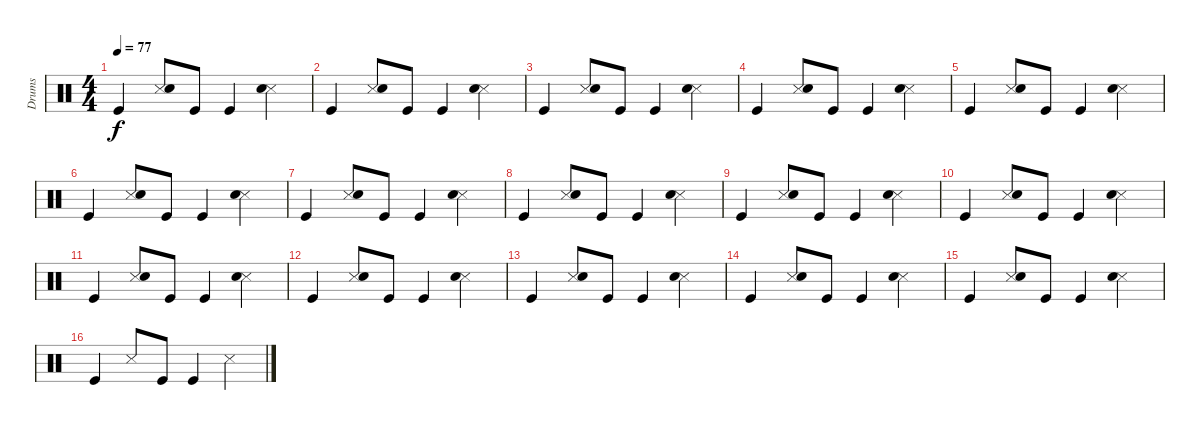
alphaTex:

\track ("Drums" "Drums") {instrument percussion}
\staff {score}
\articulation defaults
\ts (4 4)
\tempo 77
\clef neutral
\ks c "Kick (hit)".4{dy f}
("Snare (side stick) 3" "Snare (hit) 2").8 "Kick (hit)".8 "Kick (hit)".4 ("Snare (side stick) 3" "Snare (hit) 2").4 |
"Kick (hit)".4 ("Snare (side stick) 3" "Snare (hit) 2").8 "Kick (hit)".8 "Kick (hit)".4 ("Snare (side stick) 3" "Snare (hit) 2").4 |
"Kick (hit)".4 ("Snare (side stick) 3" "Snare (hit) 2").8 "Kick (hit)".8 "Kick (hit)".4 ("Snare (side stick) 3" "Snare (hit) 2").4 |
"Kick (hit)".4 ("Snare (side stick) 3" "Snare (hit) 2").8 "Kick (hit)".8 "Kick (hit)".4 ("Snare (side stick) 3" "Snare (hit) 2").4 |
"Kick (hit)".4 ("Snare (side stick) 3" "Snare (hit) 2").8 "Kick (hit)".8 "Kick (hit)".4 ("Snare (side stick) 3" "Snare (hit) 2").4 |
"Kick (hit)".4 ("Snare (side stick) 3" "Snare (hit) 2").8 "Kick (hit)".8 "Kick (hit)".4 ("Snare (side stick) 3" "Snare (hit) 2").4 |
"Kick (hit)".4 ("Snare (side stick) 3" "Snare (hit) 2").8 "Kick (hit)".8 "Kick (hit)".4 ("Snare (side stick) 3" "Snare (hit) 2").4 |
"Kick (hit)".4 ("Snare (side stick) 3" "Snare (hit) 2").8 "Kick (hit)".8 "Kick (hit)".4 ("Snare (side stick) 3" "Snare (hit) 2").4 |
"Kick (hit)".4 ("Snare (side stick) 3" "Snare (hit) 2").8 "Kick (hit)".8 "Kick (hit)".4 ("Snare (side stick) 3" "Snare (hit) 2").4 |
"Kick (hit)".4 ("Snare (side stick) 3" "Snare (hit) 2").8 "Kick (hit)".8 "Kick (hit)".4 ("Snare (side stick) 3" "Snare (hit) 2").4 |
"Kick (hit)".4 ("Snare (side stick) 3" "Snare (hit) 2").8 "Kick (hit)".8 "Kick (hit)".4 ("Snare (side stick) 3" "Snare (hit) 2").4 |
"Kick (hit)".4 ("Snare (side stick) 3" "Snare (hit) 2").8 "Kick (hit)".8 "Kick (hit)".4 ("Snare (side stick) 3" "Snare (hit) 2").4 |
"Kick (hit)".4 ("Snare (side stick) 3" "Snare (hit) 2").8 "Kick (hit)".8 "Kick (hit)".4 ("Snare (side stick) 3" "Snare (hit) 2").4 |
"Kick (hit)".4 ("Snare (side stick) 3" "Snare (hit) 2").8 "Kick (hit)".8 "Kick (hit)".4 ("Snare (side stick) 3" "Snare (hit) 2").4 |
"Kick (hit)".4 ("Snare (side stick) 3" "Snare (hit) 2").8 "Kick (hit)".8 "Kick (hit)".4 ("Snare (side stick) 3" "Snare (hit) 2").4 |
"Kick (hit)".4 "Snare (side stick) 3".8 "Kick (hit)".8 "Kick (hit)".4 "Snare (side stick) 3".4
